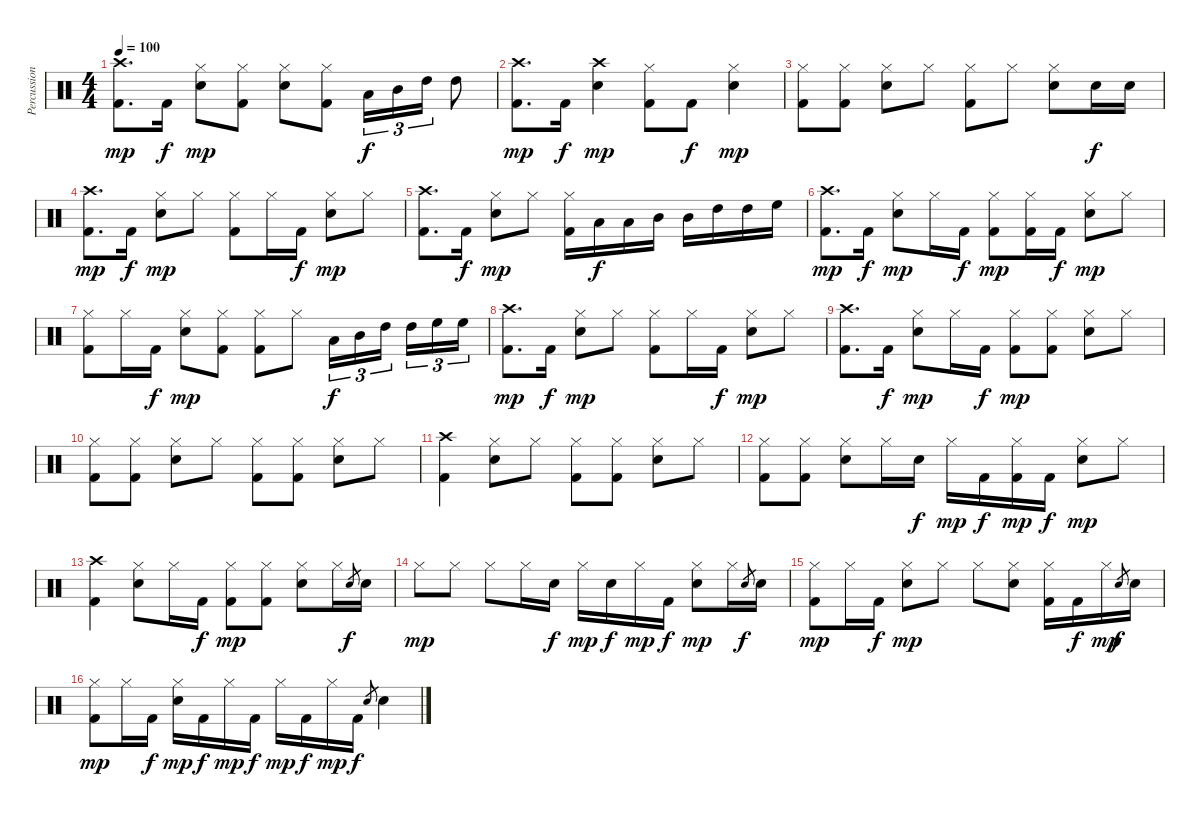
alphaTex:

\track ("Percussion" "Percussion") {instrument percussion}
\staff {score}
\articulation defaults
\ts (4 4)
\tempo 100
\clef neutral
\ks c
("Kick (hit) 2" "Crash high (hit)").8{d dy mp} "Kick (hit) 2".16{dy f} ("Snare (hit) 2" "Hi-Hat (closed)").8{dy mp} ("Kick (hit) 2" "Hi-Hat (closed)").8 ("Snare (hit) 2" "Hi-Hat (closed)").8 ("Kick (hit) 2" "Hi-Hat (closed)").8 "Low Tom (hit)".16{tu (3 2) dy f} "Mid Tom (hit)".16{tu (3 2)} "High Tom (hit)".16{tu (3 2)} "High Tom (hit)".8 |
("Kick (hit) 2" "Crash high (hit)").8{d dy mp} "Kick (hit) 2".16{dy f} ("Snare (hit) 2" "Crash high (hit)").4{dy mp} ("Kick (hit) 2" "Hi-Hat (closed)").8 "Kick (hit) 2".8{dy f} ("Snare (hit) 2" "Hi-Hat (closed)").4{dy mp} |
("Kick (hit) 2" "Hi-Hat (closed)").8 ("Kick (hit) 2" "Hi-Hat (closed)").8 ("Snare (hit) 2" "Hi-Hat (closed)").8 "Hi-Hat (closed)".8 ("Kick (hit) 2" "Hi-Hat (closed)").8 "Hi-Hat (closed)".8 ("Snare (hit) 2" "Hi-Hat (closed)").8 "Snare (hit) 2".16{dy f} "Snare (hit) 2".16 |
("Kick (hit) 2" "Crash high (hit)").8{d dy mp} "Kick (hit) 2".16{dy f} ("Snare (hit) 2" "Hi-Hat (closed)").8{dy mp} "Hi-Hat (closed)".8 ("Kick (hit) 2" "Hi-Hat (closed)").8 "Hi-Hat (closed)".16 "Kick (hit) 2".16{dy f} ("Snare (hit) 2" "Hi-Hat (closed)").8{dy mp} "Hi-Hat (closed)".8 |
("Kick (hit) 2" "Crash high (hit)").8{d} "Kick (hit) 2".16{dy f} ("Snare (hit) 2" "Hi-Hat (closed)").8{dy mp} "Hi-Hat (closed)".8 ("Kick (hit) 2" "Hi-Hat (closed)").16 "Low Tom (hit)".16{dy f} "Low Tom (hit)".16 "Mid Tom (hit)".16 "Mid Tom (hit)".16 "High Tom (hit)".16 "High Tom (hit)".16 "High Floor Tom (hit)".16 |
("Kick (hit) 2" "Crash high (hit)").8{d dy mp} "Kick (hit) 2".16{dy f} ("Snare (hit) 2" "Hi-Hat (closed)").8{dy mp} "Hi-Hat (closed)".16 "Kick (hit) 2".16{dy f} ("Kick (hit) 2" "Hi-Hat (closed)").8{dy mp} ("Kick (hit) 2" "Hi-Hat (closed)").16 "Kick (hit) 2".16{dy f} ("Snare (hit) 2" "Hi-Hat (closed)").8{dy mp} "Hi-Hat (closed)".8 |
("Kick (hit) 2" "Hi-Hat (closed)").8 "Hi-Hat (closed)".16 "Kick (hit) 2".16{dy f} ("Snare (hit) 2" "Hi-Hat (closed)").8{dy mp} ("Kick (hit) 2" "Hi-Hat (closed)").8 ("Kick (hit) 2" "Hi-Hat (closed)").8 "Hi-Hat (closed)".8 "Low Tom (hit)".16{tu (3 2) dy f} "Mid Tom (hit)".16{tu (3 2)} "High Tom (hit)".16{tu (3 2)} "High Tom (hit)".16{tu (3 2)} "High Floor Tom (hit)".16{tu (3 2)} "High Floor Tom (hit)".16{tu (3 2)} |
("Kick (hit) 2" "Crash high (hit)").8{d dy mp} "Kick (hit) 2".16{dy f} ("Snare (hit) 2" "Hi-Hat (closed)").8{dy mp} "Hi-Hat (closed)".8 ("Kick (hit) 2" "Hi-Hat (closed)").8 "Hi-Hat (closed)".16 "Kick (hit) 2".16{dy f} ("Snare (hit) 2" "Hi-Hat (closed)").8{dy mp} "Hi-Hat (closed)".8 |
("Kick (hit) 2" "Crash high (hit)").8{d} "Kick (hit) 2".16{dy f} ("Snare (hit) 2" "Hi-Hat (closed)").8{dy mp} "Hi-Hat (closed)".16 "Kick (hit) 2".16{dy f} ("Kick (hit) 2" "Hi-Hat (closed)").8{dy mp} ("Kick (hit) 2" "Hi-Hat (closed)").8 ("Snare (hit) 2" "Hi-Hat (closed)").8 "Hi-Hat (closed)".8 |
("Kick (hit) 2" "Hi-Hat (closed)").8 ("Kick (hit) 2" "Hi-Hat (closed)").8 ("Snare (hit) 2" "Hi-Hat (closed)").8 "Hi-Hat (closed)".8 ("Kick (hit) 2" "Hi-Hat (closed)").8 ("Kick (hit) 2" "Hi-Hat (closed)").8 ("Snare (hit) 2" "Hi-Hat (closed)").8 "Hi-Hat (closed)".8 |
("Kick (hit) 2" "Crash high (hit)").4 ("Snare (hit) 2" "Hi-Hat (closed)").8 "Hi-Hat (closed)".8 ("Kick (hit) 2" "Hi-Hat (closed)").8 ("Kick (hit) 2" "Hi-Hat (closed)").8 ("Snare (hit) 2" "Hi-Hat (closed)").8 "Hi-Hat (closed)".8 |
("Kick (hit) 2" "Hi-Hat (closed)").8 ("Kick (hit) 2" "Hi-Hat (closed)").8 ("Snare (hit) 2" "Hi-Hat (closed)").8 "Hi-Hat (closed)".16 "Snare (hit) 2".16{dy f} "Hi-Hat (closed)".16{dy mp} "Kick (hit) 2".16{dy f} ("Kick (hit) 2" "Hi-Hat (closed)").16{dy mp} "Kick (hit) 2".16{dy f} ("Snare (hit) 2" "Hi-Hat (closed)").8{dy mp} "Hi-Hat (closed)".8 |
("Kick (hit) 2" "Crash high (hit)").4 ("Snare (hit) 2" "Hi-Hat (closed)").8 "Hi-Hat (closed)".16 "Kick (hit) 2".16{dy f} ("Kick (hit) 2" "Hi-Hat (closed)").8{dy mp} ("Kick (hit) 2" "Hi-Hat (closed)").8 ("Snare (hit) 2" "Hi-Hat (closed)").8 "Hi-Hat (closed)".16 "Snare (hit) 2".8{gr dy f} "Snare (hit) 2".16 |
"Hi-Hat (closed)".8{dy mp} "Hi-Hat (closed)".8 "Hi-Hat (closed)".8 "Hi-Hat (closed)".16 "Snare (hit) 2".16{dy f} "Hi-Hat (closed)".16{dy mp} "Snare (hit) 2".16{dy f} "Hi-Hat (closed)".16{dy mp} "Kick (hit) 2".16{dy f} ("Snare (hit) 2" "Hi-Hat (closed)").8{dy mp} "Hi-Hat (closed)".16 "Snare (hit) 2".8{gr dy f} "Snare (hit) 2".16 |
("Kick (hit) 2" "Hi-Hat (closed)").8{dy mp} "Hi-Hat (closed)".16 "Kick (hit) 2".16{dy f} ("Snare (hit) 2" "Hi-Hat (closed)").8{dy mp} "Hi-Hat (closed)".8 "Hi-Hat (closed)".8 ("Snare (hit) 2" "Hi-Hat (closed)").8 ("Kick (hit) 2" "Hi-Hat (closed)").16 "Kick (hit) 2".16{dy f} "Hi-Hat (closed)".16{dy mp} "Snare (hit) 2".8{gr dy f} "Snare (hit) 2".16 |
("Kick (hit) 2" "Hi-Hat (closed)").8{dy mp} "Hi-Hat (closed)".16 "Kick (hit) 2".16{dy f} ("Snare (hit) 2" "Hi-Hat (closed)").16{dy mp} "Kick (hit) 2".16{dy f} "Hi-Hat (closed)".16{dy mp} "Kick (hit) 2".16{dy f} "Hi-Hat (closed)".16{dy mp} "Kick (hit) 2".16{dy f} "Hi-Hat (closed)".16{dy mp} "Kick (hit) 2".16{dy f} "Snare (hit) 2".8{gr} "Snare (hit) 2".4
